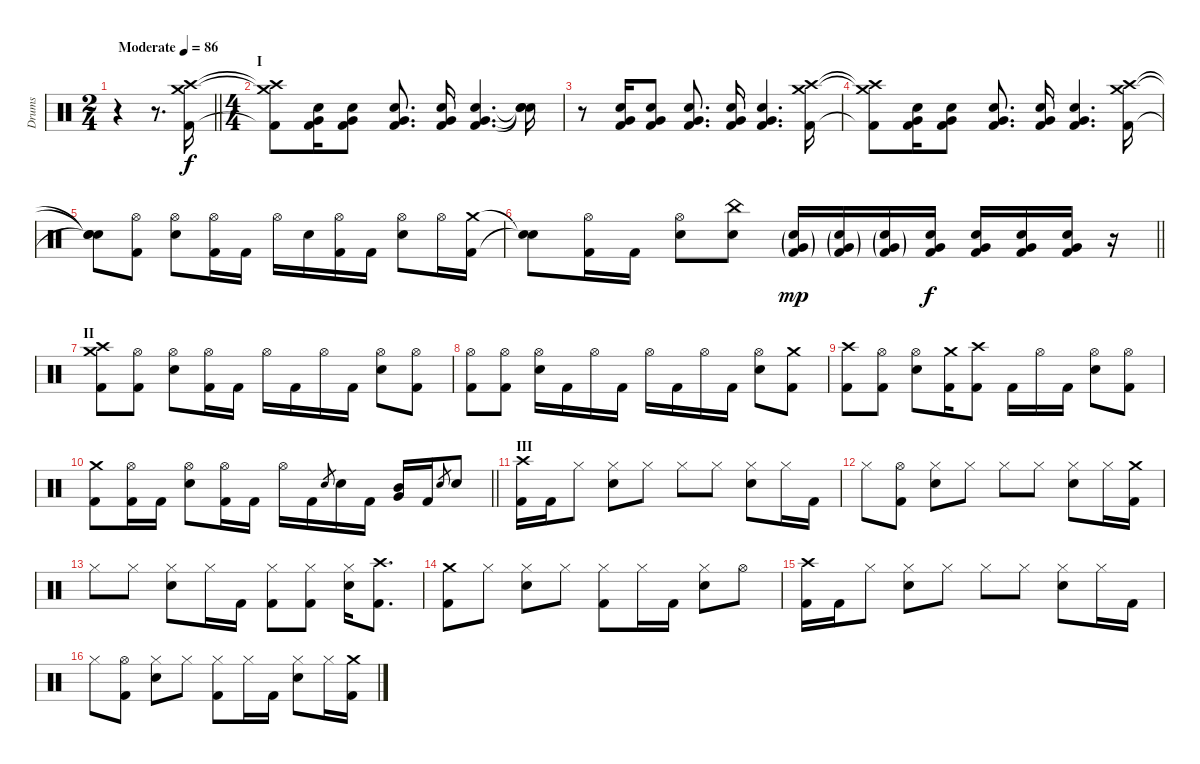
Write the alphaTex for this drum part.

\track ("Drums" "Drums") {instrument percussion}
\staff {score}
\articulation defaults
\ts (2 4)
\tempo (86 "Moderate")
\clef neutral
\barLineRight lightlight
\ks c
r.4{dy f} r.8{d} ("Kick (hit) 2" "Crash medium (hit)" "Crash high (hit)").16 |
\ts (4 4)
\section ("" "I")
("Kick (hit) 2"{t} "Crash medium (hit)"{t} "Crash high (hit)"{t}).8 ("Very Low Tom (hit)" "Electric Snare (hit)" "Kick (hit) 2").16 ("Very Low Tom (hit)" "Electric Snare (hit)" "Kick (hit) 2").8 ("Very Low Tom (hit)" "Electric Snare (hit)" "Kick (hit) 2").8{d} ("Very Low Tom (hit)" "Electric Snare (hit)" "Kick (hit) 2").16 ("Very Low Tom (hit)" "Electric Snare (hit)" "Kick (hit) 2").4{d} ("Snare (hit)"{t} "Snare (hit)"{t} "Snare (hit)"{t}).16 |
r.8 ("Very Low Tom (hit)" "Electric Snare (hit)" "Kick (hit) 2").16 ("Very Low Tom (hit)" "Electric Snare (hit)" "Kick (hit) 2").8 ("Very Low Tom (hit)" "Electric Snare (hit)" "Kick (hit) 2").8{d} ("Very Low Tom (hit)" "Electric Snare (hit)" "Kick (hit) 2").16 ("Very Low Tom (hit)" "Electric Snare (hit)" "Kick (hit) 2").4{d} ("Kick (hit) 2" "Crash medium (hit)" "Crash high (hit)").16 |
("Kick (hit) 2"{t} "Crash medium (hit)"{t} "Crash high (hit)"{t}).8 ("Very Low Tom (hit)" "Electric Snare (hit)" "Kick (hit) 2").16 ("Very Low Tom (hit)" "Electric Snare (hit)" "Kick (hit) 2").8 ("Very Low Tom (hit)" "Electric Snare (hit)" "Kick (hit) 2").8{d} ("Very Low Tom (hit)" "Electric Snare (hit)" "Kick (hit) 2").16 ("Very Low Tom (hit)" "Electric Snare (hit)" "Kick (hit) 2").4{d} ("Kick (hit) 2" "Crash medium (hit)" "Crash high (hit)").16 |
("Snare (hit)"{t} "Snare (hit)"{t} "Snare (hit)"{t}).8 ("Hi-Hat (open)" "Kick (hit) 2").8 ("Hi-Hat (open)" "Electric Snare (hit)").8 ("Hi-Hat (open)" "Kick (hit) 2").16 "Kick (hit) 2".16 "Hi-Hat (open)".16 "Electric Snare (hit)".16 ("Hi-Hat (open)" "Kick (hit) 2").16 "Kick (hit) 2".16 ("Hi-Hat (open)" "Electric Snare (hit)").8 "Hi-Hat (open)".16 ("Kick (hit) 2" "Crash medium (hit)").16 |
\barLineRight lightlight
("Snare (hit)"{t} "Snare (hit)"{t}).8 ("Hi-Hat (open)" "Kick (hit) 2").16 "Kick (hit) 2".16 ("Hi-Hat (open)" "Electric Snare (hit)").8 ("China (hit)" "Electric Snare (hit)").8 ("Very Low Tom (hit)"{g} "Electric Snare (hit)"{g} "Kick (hit) 2"{g}).16{dy mp} ("Very Low Tom (hit)"{g} "Electric Snare (hit)"{g} "Kick (hit) 2"{g}).16 ("Very Low Tom (hit)"{g} "Electric Snare (hit)"{g} "Kick (hit) 2"{g}).16 ("Very Low Tom (hit)" "Electric Snare (hit)" "Kick (hit) 2").16{dy f} ("Very Low Tom (hit)" "Electric Snare (hit)" "Kick (hit) 2").16 ("Very Low Tom (hit)" "Electric Snare (hit)" "Kick (hit) 2").16 ("Very Low Tom (hit)" "Electric Snare (hit)" "Kick (hit) 2").16 r.16 |
\section ("" "II")
("Kick (hit) 2" "Crash high (hit)" "Crash medium (hit)").8 ("Hi-Hat (open)" "Kick (hit) 2").8 ("Hi-Hat (open)" "Electric Snare (hit)").8 ("Hi-Hat (open)" "Kick (hit) 2").16 "Kick (hit) 2".16 "Hi-Hat (open)".16 "Kick (hit) 2".16 "Hi-Hat (open)".16 "Kick (hit) 2".16 ("Hi-Hat (open)" "Electric Snare (hit)").8 ("Hi-Hat (open)" "Kick (hit) 2").8 |
("Hi-Hat (open)" "Kick (hit) 2").8 ("Hi-Hat (open)" "Kick (hit) 2").8 ("Hi-Hat (open)" "Electric Snare (hit)").16 "Kick (hit) 2".16 "Hi-Hat (open)".16 "Kick (hit) 2".16 "Hi-Hat (open)".16 "Kick (hit) 2".16 "Hi-Hat (open)".16 "Kick (hit) 2".16 ("Hi-Hat (open)" "Electric Snare (hit)").8 ("Kick (hit) 2" "Crash medium (hit)").8 |
("Kick (hit) 2" "Crash high (hit)").8 ("Hi-Hat (open)" "Kick (hit) 2").8 ("Hi-Hat (open)" "Electric Snare (hit)").8 ("Kick (hit) 2" "Crash medium (hit)").16 ("Kick (hit) 2" "Crash high (hit)").8 "Kick (hit) 2".16 "Hi-Hat (open)".16 "Kick (hit) 2".16 ("Hi-Hat (open)" "Electric Snare (hit)").8 ("Hi-Hat (open)" "Kick (hit) 2").8 |
\barLineRight lightlight
("Kick (hit) 2" "Crash medium (hit)").8 ("Hi-Hat (open)" "Kick (hit) 2").16 "Kick (hit) 2".16 ("Hi-Hat (open)" "Electric Snare (hit)").8 ("Hi-Hat (open)" "Kick (hit) 2").16 "Kick (hit) 2".16 "Hi-Hat (open)".16 "Kick (hit) 2".16 "Electric Snare (hit)".8{gr} "Electric Snare (hit)".16 "Kick (hit) 2".16 ("Mid Tom (hit)" "Very Low Tom (hit)").16 "Kick (hit) 2".16 "Electric Snare (hit)".8{gr} "Electric Snare (hit)".8 |
\section ("" "III")
("Kick (hit) 2" "Crash high (hit)").16 "Kick (hit) 2".16 "Hi-Hat (closed)".8 ("Hi-Hat (closed)" "Electric Snare (hit)").8 "Hi-Hat (closed)".8 "Hi-Hat (closed)".8 "Hi-Hat (closed)".8 ("Hi-Hat (closed)" "Electric Snare (hit)").8 "Hi-Hat (closed)".16 "Kick (hit) 2".16 |
"Hi-Hat (closed)".8 ("Hi-Hat (open)" "Kick (hit) 2").8 ("Hi-Hat (closed)" "Electric Snare (hit)").8 "Hi-Hat (closed)".8 "Hi-Hat (closed)".8 "Hi-Hat (closed)".8 ("Hi-Hat (closed)" "Electric Snare (hit)").8 "Hi-Hat (closed)".16 ("Kick (hit) 2" "Crash medium (hit)").16 |
"Hi-Hat (closed)".8 "Hi-Hat (closed)".8 ("Hi-Hat (closed)" "Electric Snare (hit)").8 "Hi-Hat (closed)".16 "Kick (hit) 2".16 ("Hi-Hat (closed)" "Kick (hit) 2").8 ("Hi-Hat (closed)" "Kick (hit) 2").8 ("Hi-Hat (closed)" "Electric Snare (hit)").16 ("Kick (hit) 2" "Crash high (hit)").8{d} |
("Kick (hit) 2" "Crash medium (hit)").8 "Hi-Hat (closed)".8 ("Hi-Hat (closed)" "Electric Snare (hit)").8 "Hi-Hat (closed)".8 ("Hi-Hat (closed)" "Kick (hit) 2").8 "Hi-Hat (closed)".16 "Kick (hit) 2".16 ("Hi-Hat (closed)" "Electric Snare (hit)").8 "Hi-Hat (open)".8 |
("Kick (hit) 2" "Crash high (hit)").16 "Kick (hit) 2".16 "Hi-Hat (closed)".8 ("Hi-Hat (closed)" "Electric Snare (hit)").8 "Hi-Hat (closed)".8 "Hi-Hat (closed)".8 "Hi-Hat (closed)".8 ("Hi-Hat (closed)" "Electric Snare (hit)").8 "Hi-Hat (closed)".16 "Kick (hit) 2".16 |
"Hi-Hat (closed)".8 ("Hi-Hat (open)" "Kick (hit) 2").8 ("Hi-Hat (closed)" "Electric Snare (hit)").8 "Hi-Hat (closed)".8 ("Hi-Hat (closed)" "Kick (hit) 2").8 "Hi-Hat (closed)".16 "Kick (hit) 2".16 ("Hi-Hat (closed)" "Electric Snare (hit)").8 "Hi-Hat (closed)".16 ("Kick (hit) 2" "Crash medium (hit)").16
